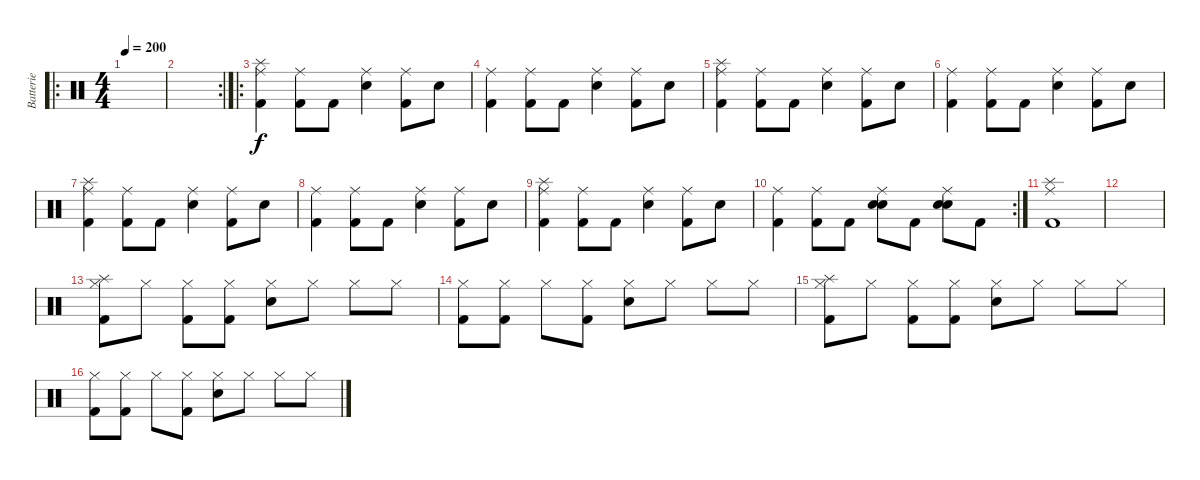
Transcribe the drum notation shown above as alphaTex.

\track ("Batterie" "Batterie") {instrument percussion}
\staff {score}
\articulation defaults
\ro
\ts (4 4)
\tempo 200
\clef neutral
\ks c
|
\rc 2
|
\ro
("Splash (hit)" "Ride (middle)" "Kick (hit) 2").4 ("Ride (middle)" "Kick (hit) 2").8 "Kick (hit) 2".8 ("Ride (middle)" "Snare (hit) 2").4 ("Ride (middle)" "Kick (hit) 2").8 "Snare (hit) 2".8 |
("Ride (middle)" "Kick (hit) 2").4 ("Ride (middle)" "Kick (hit) 2").8 "Kick (hit) 2".8 ("Ride (middle)" "Snare (hit) 2").4 ("Ride (middle)" "Kick (hit) 2").8 "Snare (hit) 2".8 |
("Splash (hit)" "Ride (middle)" "Kick (hit) 2").4 ("Ride (middle)" "Kick (hit) 2").8 "Kick (hit) 2".8 ("Ride (middle)" "Snare (hit) 2").4 ("Ride (middle)" "Kick (hit) 2").8 "Snare (hit) 2".8 |
("Ride (middle)" "Kick (hit) 2").4 ("Ride (middle)" "Kick (hit) 2").8 "Kick (hit) 2".8 ("Ride (middle)" "Snare (hit) 2").4 ("Ride (middle)" "Kick (hit) 2").8 "Snare (hit) 2".8 |
("Splash (hit)" "Ride (middle)" "Kick (hit) 2").4 ("Ride (middle)" "Kick (hit) 2").8 "Kick (hit) 2".8 ("Ride (middle)" "Snare (hit) 2").4 ("Ride (middle)" "Kick (hit) 2").8 "Snare (hit) 2".8 |
("Ride (middle)" "Kick (hit) 2").4 ("Ride (middle)" "Kick (hit) 2").8 "Kick (hit) 2".8 ("Ride (middle)" "Snare (hit) 2").4 ("Ride (middle)" "Kick (hit) 2").8 "Snare (hit) 2".8 |
("Splash (hit)" "Ride (middle)" "Kick (hit) 2").4 ("Ride (middle)" "Kick (hit) 2").8 "Kick (hit) 2".8 ("Ride (middle)" "Snare (hit) 2").4 ("Ride (middle)" "Kick (hit) 2").8 "Snare (hit) 2".8 |
\rc 2
("Ride (middle)" "Kick (hit) 2").4 ("Ride (middle)" "Kick (hit) 2").8 "Kick (hit) 2".8 ("Ride (middle)" "Snare (hit) 2" "Snare (hit) 2").8 "Kick (hit) 2".8 ("Ride (middle)" "Snare (hit) 2" "Snare (hit) 2").8 "Kick (hit) 2".8 |
("Splash (hit)" "Ride (middle)" "Kick (hit) 2").1 |
|
("Splash (hit)" "Hi-Hat (closed)" "Kick (hit) 2").8 "Hi-Hat (closed)".8 ("Hi-Hat (closed)" "Kick (hit) 2").8 ("Hi-Hat (closed)" "Kick (hit) 2").8 ("Hi-Hat (closed)" "Snare (hit) 2").8 "Hi-Hat (closed)".8 "Hi-Hat (closed)".8 "Hi-Hat (closed)".8 |
("Hi-Hat (closed)" "Kick (hit) 2").8 ("Hi-Hat (closed)" "Kick (hit) 2").8 "Hi-Hat (closed)".8 ("Hi-Hat (closed)" "Kick (hit) 2").8 ("Hi-Hat (closed)" "Snare (hit) 2").8 "Hi-Hat (closed)".8 "Hi-Hat (closed)".8 "Hi-Hat (closed)".8 |
("Splash (hit)" "Hi-Hat (closed)" "Kick (hit) 2").8 "Hi-Hat (closed)".8 ("Hi-Hat (closed)" "Kick (hit) 2").8 ("Hi-Hat (closed)" "Kick (hit) 2").8 ("Hi-Hat (closed)" "Snare (hit) 2").8 "Hi-Hat (closed)".8 "Hi-Hat (closed)".8 "Hi-Hat (closed)".8 |
("Hi-Hat (closed)" "Kick (hit) 2").8 ("Hi-Hat (closed)" "Kick (hit) 2").8 "Hi-Hat (closed)".8 ("Hi-Hat (closed)" "Kick (hit) 2").8 ("Hi-Hat (closed)" "Snare (hit) 2").8 "Hi-Hat (closed)".8 "Hi-Hat (closed)".8 "Hi-Hat (closed)".8
